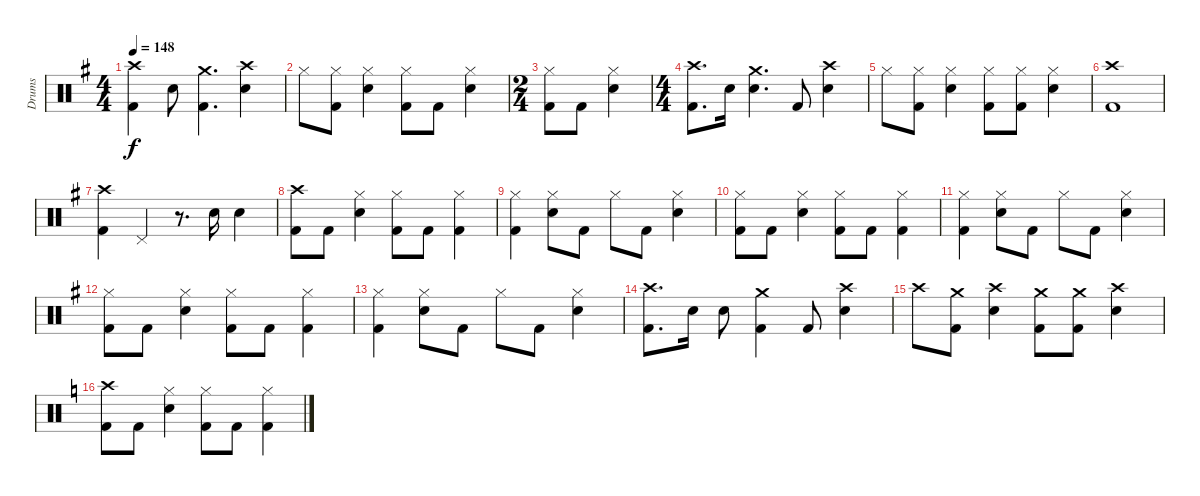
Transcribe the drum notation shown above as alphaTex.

\track ("Drums" "Drums") {instrument percussion}
\staff {score}
\articulation defaults
\ts (4 4)
\tempo 148
\clef neutral
\ks eminor
("Kick (hit) 2" "Crash high (hit)").4{dy f} "Snare (hit) 2".8 ("Kick (hit) 2" "Crash medium (hit)").4{d} ("Snare (hit) 2" "Crash high (hit)").4 |
"Hi-Hat (closed)".8 ("Kick (hit) 2" "Hi-Hat (closed)").8 ("Snare (hit) 2" "Hi-Hat (closed)").4 ("Kick (hit) 2" "Hi-Hat (closed)").8 "Kick (hit) 2".8 ("Snare (hit) 2" "Hi-Hat (closed)").4 |
\ts (2 4)
("Kick (hit) 2" "Hi-Hat (closed)").8 "Kick (hit) 2".8 ("Snare (hit) 2" "Hi-Hat (closed)").4 |
\ts (4 4)
("Kick (hit) 2" "Crash high (hit)").8{d} "Snare (hit) 2".16 ("Snare (hit) 2" "Crash medium (hit)").4{d} "Kick (hit) 2".8 ("Snare (hit) 2" "Crash high (hit)").4 |
"Hi-Hat (closed)".8 ("Kick (hit) 2" "Hi-Hat (closed)").8 ("Snare (hit) 2" "Hi-Hat (closed)").4 ("Kick (hit) 2" "Hi-Hat (closed)").8 ("Kick (hit) 2" "Hi-Hat (closed)").8 ("Snare (hit) 2" "Hi-Hat (closed)").4 |
("Kick (hit) 2" "Crash high (hit)").1 |
("Kick (hit) 2" "Crash high (hit)").4 "Pedal Hi-Hat (hit)".4 r.8{d} "Snare (hit) 2".16 "Snare (hit) 2".4 |
("Kick (hit) 2" "Crash high (hit)").8 "Kick (hit) 2".8 ("Snare (hit) 2" "Hi-Hat (closed)").4 ("Kick (hit) 2" "Hi-Hat (closed)").8 "Kick (hit) 2".8 ("Kick (hit) 2" "Hi-Hat (closed)").4 |
("Kick (hit) 2" "Hi-Hat (closed)").4 ("Snare (hit) 2" "Hi-Hat (closed)").8 "Kick (hit) 2".8 "Hi-Hat (closed)".8 "Kick (hit) 2".8 ("Snare (hit) 2" "Hi-Hat (closed)").4 |
("Kick (hit) 2" "Hi-Hat (closed)").8 "Kick (hit) 2".8 ("Snare (hit) 2" "Hi-Hat (closed)").4 ("Kick (hit) 2" "Hi-Hat (closed)").8 "Kick (hit) 2".8 ("Kick (hit) 2" "Hi-Hat (closed)").4 |
("Kick (hit) 2" "Hi-Hat (closed)").4 ("Snare (hit) 2" "Hi-Hat (closed)").8 "Kick (hit) 2".8 "Hi-Hat (closed)".8 "Kick (hit) 2".8 ("Snare (hit) 2" "Hi-Hat (closed)").4 |
("Kick (hit) 2" "Hi-Hat (closed)").8 "Kick (hit) 2".8 ("Snare (hit) 2" "Hi-Hat (closed)").4 ("Kick (hit) 2" "Hi-Hat (closed)").8 "Kick (hit) 2".8 ("Kick (hit) 2" "Hi-Hat (closed)").4 |
("Kick (hit) 2" "Hi-Hat (closed)").4 ("Snare (hit) 2" "Hi-Hat (closed)").8 "Kick (hit) 2".8 "Hi-Hat (closed)".8 "Kick (hit) 2".8 ("Snare (hit) 2" "Hi-Hat (closed)").4 |
("Kick (hit) 2" "Crash high (hit)").8{d} "Snare (hit) 2".16 "Snare (hit) 2".8 ("Kick (hit) 2" "Crash medium (hit)").4 "Kick (hit) 2".8 ("Snare (hit) 2" "Crash high (hit)").4 |
"Crash high (hit)".8 ("Kick (hit) 2" "Crash medium (hit)").8 ("Snare (hit) 2" "Crash high (hit)").4 ("Kick (hit) 2" "Crash medium (hit)").8 ("Kick (hit) 2" "Crash medium (hit)").8 ("Snare (hit) 2" "Crash high (hit)").4 |
\ks aminor
("Kick (hit) 2" "Crash high (hit)").8 "Kick (hit) 2".8 ("Snare (hit) 2" "Hi-Hat (closed)").4 ("Kick (hit) 2" "Hi-Hat (closed)").8 "Kick (hit) 2".8 ("Kick (hit) 2" "Hi-Hat (closed)").4
